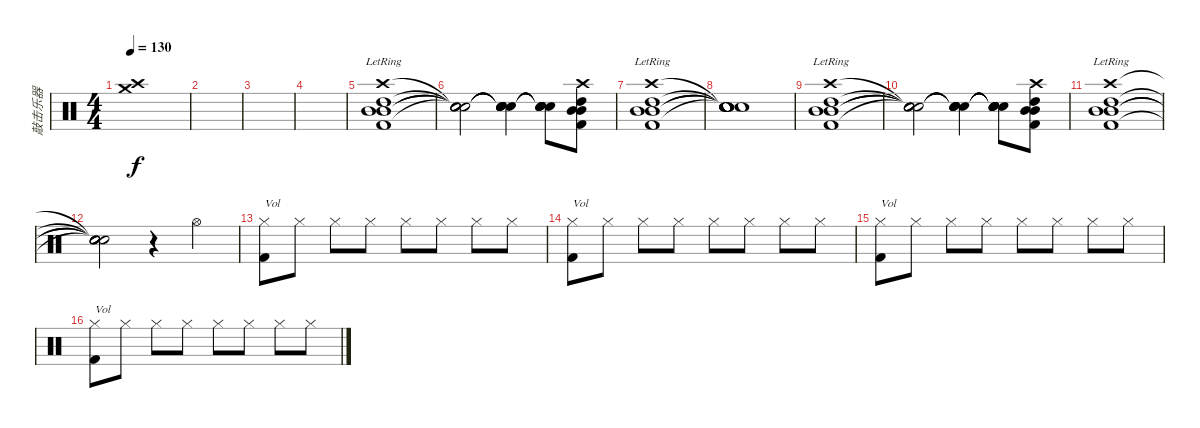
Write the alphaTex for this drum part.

\track ("敲击乐器" "敲击乐器") {instrument percussion}
\staff {score}
\articulation defaults
\ts (4 4)
\tempo 130
\clef neutral
\ks c
("Crash high (hit)" "Crash medium (hit)").1{dy f} |
|
|
|
("Mid Tom (hit)"{lr} "Mid Tom (hit)"{lr} "High Tom (hit)"{lr} "Crash high (hit)"{lr} "Kick (hit) 2"{lr}).1 |
("Snare (hit)"{t} "Snare (hit)"{t} "Snare (hit)"{t} "Snare (hit)"{t} "Snare (hit)"{t}).2 ("Snare (hit)"{t} "Snare (hit)"{t} "Snare (hit)"{t} "Snare (hit)"{t} "Snare (hit)"{t}).4 ("Snare (hit)"{t} "Snare (hit)"{t} "Snare (hit)"{t} "Snare (hit)"{t} "Snare (hit)"{t}).8 ("Mid Tom (hit)" "Mid Tom (hit)" "High Tom (hit)" "Crash high (hit)" "Kick (hit) 2").8 |
("Mid Tom (hit)"{lr} "Mid Tom (hit)"{lr} "High Tom (hit)"{lr} "Crash high (hit)"{lr} "Kick (hit) 2"{lr}).1 |
("Snare (hit)"{t} "Snare (hit)"{t} "Snare (hit)"{t} "Snare (hit)"{t} "Snare (hit)"{t}).1 |
("Mid Tom (hit)"{lr} "Mid Tom (hit)"{lr} "High Tom (hit)"{lr} "Crash high (hit)"{lr} "Kick (hit) 2"{lr}).1 |
("Snare (hit)"{t} "Snare (hit)"{t} "Snare (hit)"{t} "Snare (hit)"{t} "Snare (hit)"{t}).2 ("Snare (hit)"{t} "Snare (hit)"{t} "Snare (hit)"{t} "Snare (hit)"{t} "Snare (hit)"{t}).4 ("Snare (hit)"{t} "Snare (hit)"{t} "Snare (hit)"{t} "Snare (hit)"{t} "Snare (hit)"{t}).8 ("Mid Tom (hit)" "Mid Tom (hit)" "High Tom (hit)" "Crash high (hit)" "Kick (hit) 2").8 |
("Mid Tom (hit)"{lr} "Mid Tom (hit)"{lr} "High Tom (hit)"{lr} "Crash high (hit)"{lr} "Kick (hit) 2"{lr}).1 |
("Snare (hit)"{t} "Snare (hit)"{t} "Snare (hit)"{t} "Snare (hit)"{t} "Snare (hit)"{t}).2 r.4 "Hi-Hat (open)".4 |
("Hi-Hat (closed)" "Kick (hit) 2").8{txt "Vol"} "Hi-Hat (closed)".8 "Hi-Hat (closed)".8 "Hi-Hat (closed)".8 "Hi-Hat (closed)".8 "Hi-Hat (closed)".8 "Hi-Hat (closed)".8 "Hi-Hat (closed)".8 |
("Hi-Hat (closed)" "Kick (hit) 2").8{txt "Vol"} "Hi-Hat (closed)".8 "Hi-Hat (closed)".8 "Hi-Hat (closed)".8 "Hi-Hat (closed)".8 "Hi-Hat (closed)".8 "Hi-Hat (closed)".8 "Hi-Hat (closed)".8 |
("Hi-Hat (closed)" "Kick (hit) 2").8{txt "Vol"} "Hi-Hat (closed)".8 "Hi-Hat (closed)".8 "Hi-Hat (closed)".8 "Hi-Hat (closed)".8 "Hi-Hat (closed)".8 "Hi-Hat (closed)".8 "Hi-Hat (closed)".8 |
("Hi-Hat (closed)" "Kick (hit) 2").8{txt "Vol"} "Hi-Hat (closed)".8 "Hi-Hat (closed)".8 "Hi-Hat (closed)".8 "Hi-Hat (closed)".8 "Hi-Hat (closed)".8 "Hi-Hat (closed)".8 "Hi-Hat (closed)".8
